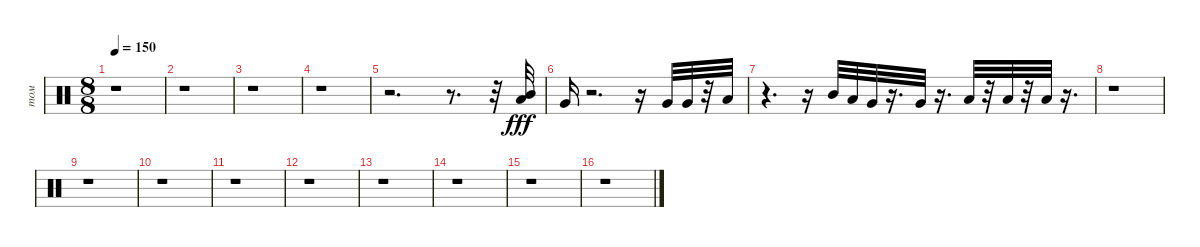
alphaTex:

\track ("том" "том") {instrument percussion}
\staff {score}
\articulation defaults
\ts (8 8)
\tempo 150
\clef neutral
\ks c
r.1{dy fff} |
r.1 |
r.1 |
r.1 |
r.2{d} r.8{d} r.32 ("Mid Tom (hit)" "Low Tom (hit)").32 |
"Very Low Tom (hit)".16 r.2{d} r.16 "Very Low Tom (hit)".32 "Very Low Tom (hit)".32 r.32 "Low Floor Tom (hit)".32 |
r.4{d} r.16 "Mid Tom (hit)".32 "Low Tom (hit)".32 "Very Low Tom (hit)".32 r.16{d} "Very Low Tom (hit)".32 r.16{d} "Low Floor Tom (hit)".32 r.32 "Low Floor Tom (hit)".32 r.32 "Low Floor Tom (hit)".32 r.16{d} |
r.1 |
r.1 |
r.1 |
r.1 |
r.1 |
r.1 |
r.1 |
r.1 |
r.1
